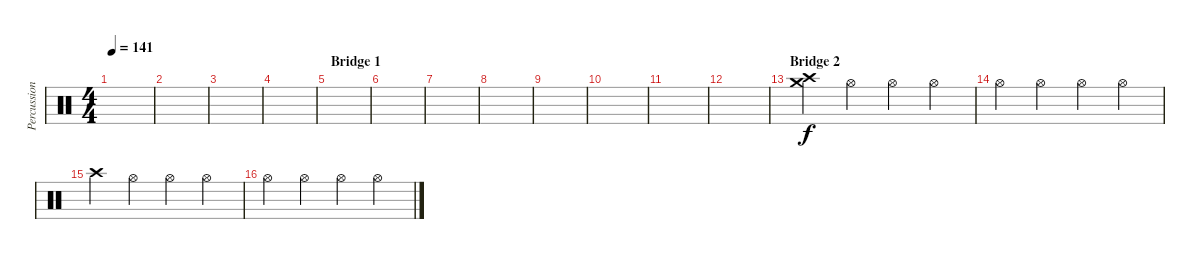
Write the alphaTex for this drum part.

\track ("Percussion" "Percussion") {instrument percussion}
\staff {score}
\articulation defaults
\ts (4 4)
\tempo 141
\clef neutral
\ks c
|
|
|
|
\section ("" "Bridge 1")
|
|
|
|
|
|
|
|
\section ("" "Bridge 2")
("Crash high (hit)" "Crash medium (hit)").4 "Hi-Hat (open)".4 "Hi-Hat (open)".4 "Hi-Hat (open)".4 |
"Hi-Hat (open)".4 "Hi-Hat (open)".4 "Hi-Hat (open)".4 "Hi-Hat (open)".4 |
"Crash high (hit)".4 "Hi-Hat (open)".4 "Hi-Hat (open)".4 "Hi-Hat (open)".4 |
"Hi-Hat (open)".4 "Hi-Hat (open)".4 "Hi-Hat (open)".4 "Hi-Hat (open)".4
